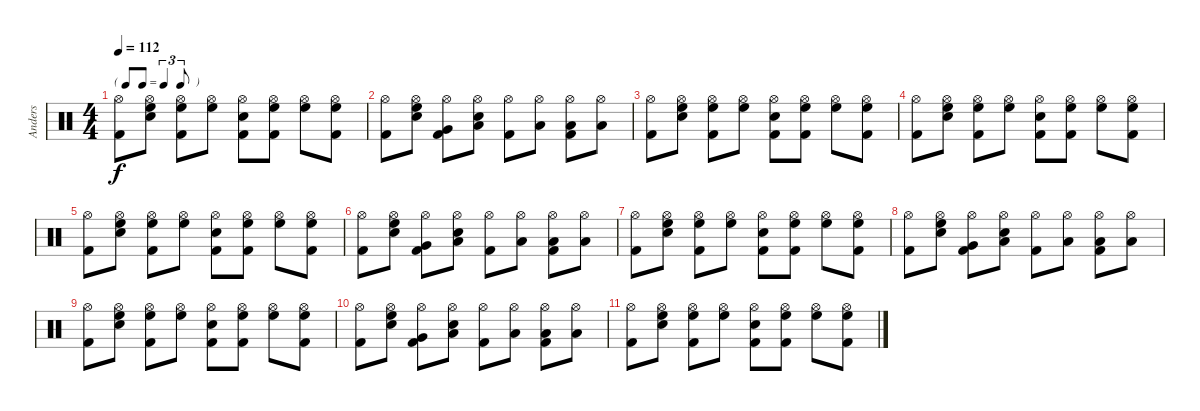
\track ("Anders" "Anders") {instrument percussion}
\staff {score}
\articulation defaults
\ts (4 4)
\tf triplet8th
\tempo 112
\clef neutral
\ks c
("Hi-Hat (open)" "Kick (hit) 2").8{dy f} ("Hi-Hat (open)" "Snare (hit) 2" "High Floor Tom (hit)").8 ("Hi-Hat (open)" "High Floor Tom (hit)" "Kick (hit) 2").8 ("Hi-Hat (open)" "High Floor Tom (hit)").8 ("Hi-Hat (open)" "Snare (hit) 2" "Kick (hit) 2").8 ("Hi-Hat (open)" "High Floor Tom (hit)" "Kick (hit) 2").8 ("Hi-Hat (open)" "High Floor Tom (hit)").8 ("Hi-Hat (open)" "High Floor Tom (hit)" "Kick (hit) 2").8 |
("Hi-Hat (open)" "Kick (hit) 2").8 ("Hi-Hat (open)" "High Floor Tom (hit)" "Snare (hit) 2").8 ("Hi-Hat (open)" "Very Low Tom (hit)" "Kick (hit) 2").8 ("Hi-Hat (open)" "Snare (hit) 2" "Low Tom (hit)").8 ("Hi-Hat (open)" "Kick (hit) 2").8 ("Hi-Hat (open)" "Low Floor Tom (hit)").8 ("Hi-Hat (open)" "Low Floor Tom (hit)" "Kick (hit) 2").8 ("Hi-Hat (open)" "Low Floor Tom (hit)").8 |
("Hi-Hat (open)" "Kick (hit) 2").8 ("Hi-Hat (open)" "Snare (hit) 2" "High Floor Tom (hit)").8 ("Hi-Hat (open)" "High Floor Tom (hit)" "Kick (hit) 2").8 ("Hi-Hat (open)" "High Floor Tom (hit)").8 ("Hi-Hat (open)" "Snare (hit) 2" "Kick (hit) 2").8 ("Hi-Hat (open)" "High Floor Tom (hit)" "Kick (hit) 2").8 ("Hi-Hat (open)" "High Floor Tom (hit)").8 ("Hi-Hat (open)" "High Floor Tom (hit)" "Kick (hit) 2").8 |
("Hi-Hat (open)" "Kick (hit) 2").8 ("Hi-Hat (open)" "Snare (hit) 2" "High Floor Tom (hit)").8 ("Hi-Hat (open)" "High Floor Tom (hit)" "Kick (hit) 2").8 ("Hi-Hat (open)" "High Floor Tom (hit)").8 ("Hi-Hat (open)" "Snare (hit) 2" "Kick (hit) 2").8 ("Hi-Hat (open)" "High Floor Tom (hit)" "Kick (hit) 2").8 ("Hi-Hat (open)" "High Floor Tom (hit)").8 ("Hi-Hat (open)" "High Floor Tom (hit)" "Kick (hit) 2").8 |
("Hi-Hat (open)" "Kick (hit) 2").8 ("Hi-Hat (open)" "Snare (hit) 2" "High Floor Tom (hit)").8 ("Hi-Hat (open)" "High Floor Tom (hit)" "Kick (hit) 2").8 ("Hi-Hat (open)" "High Floor Tom (hit)").8 ("Hi-Hat (open)" "Snare (hit) 2" "Kick (hit) 2").8 ("Hi-Hat (open)" "High Floor Tom (hit)" "Kick (hit) 2").8 ("Hi-Hat (open)" "High Floor Tom (hit)").8 ("Hi-Hat (open)" "High Floor Tom (hit)" "Kick (hit) 2").8 |
("Hi-Hat (open)" "Kick (hit) 2").8 ("Hi-Hat (open)" "High Floor Tom (hit)" "Snare (hit) 2").8 ("Hi-Hat (open)" "Very Low Tom (hit)" "Kick (hit) 2").8 ("Hi-Hat (open)" "Snare (hit) 2" "Low Tom (hit)").8 ("Hi-Hat (open)" "Kick (hit) 2").8 ("Hi-Hat (open)" "Low Floor Tom (hit)").8 ("Hi-Hat (open)" "Low Floor Tom (hit)" "Kick (hit) 2").8 ("Hi-Hat (open)" "Low Floor Tom (hit)").8 |
("Hi-Hat (open)" "Kick (hit) 2").8 ("Hi-Hat (open)" "Snare (hit) 2" "High Floor Tom (hit)").8 ("Hi-Hat (open)" "High Floor Tom (hit)" "Kick (hit) 2").8 ("Hi-Hat (open)" "High Floor Tom (hit)").8 ("Hi-Hat (open)" "Snare (hit) 2" "Kick (hit) 2").8 ("Hi-Hat (open)" "High Floor Tom (hit)" "Kick (hit) 2").8 ("Hi-Hat (open)" "High Floor Tom (hit)").8 ("Hi-Hat (open)" "High Floor Tom (hit)" "Kick (hit) 2").8 |
("Hi-Hat (open)" "Kick (hit) 2").8 ("Hi-Hat (open)" "High Floor Tom (hit)" "Snare (hit) 2").8 ("Hi-Hat (open)" "Very Low Tom (hit)" "Kick (hit) 2").8 ("Hi-Hat (open)" "Snare (hit) 2" "Low Tom (hit)").8 ("Hi-Hat (open)" "Kick (hit) 2").8 ("Hi-Hat (open)" "Low Floor Tom (hit)").8 ("Hi-Hat (open)" "Low Floor Tom (hit)" "Kick (hit) 2").8 ("Hi-Hat (open)" "Low Floor Tom (hit)").8 |
("Hi-Hat (open)" "Kick (hit) 2").8 ("Hi-Hat (open)" "Snare (hit) 2" "High Floor Tom (hit)").8 ("Hi-Hat (open)" "High Floor Tom (hit)" "Kick (hit) 2").8 ("Hi-Hat (open)" "High Floor Tom (hit)").8 ("Hi-Hat (open)" "Snare (hit) 2" "Kick (hit) 2").8 ("Hi-Hat (open)" "High Floor Tom (hit)" "Kick (hit) 2").8 ("Hi-Hat (open)" "High Floor Tom (hit)").8 ("Hi-Hat (open)" "High Floor Tom (hit)" "Kick (hit) 2").8 |
("Hi-Hat (open)" "Kick (hit) 2").8 ("Hi-Hat (open)" "High Floor Tom (hit)" "Snare (hit) 2").8 ("Hi-Hat (open)" "Very Low Tom (hit)" "Kick (hit) 2").8 ("Hi-Hat (open)" "Snare (hit) 2" "Low Tom (hit)").8 ("Hi-Hat (open)" "Kick (hit) 2").8 ("Hi-Hat (open)" "Low Floor Tom (hit)").8 ("Hi-Hat (open)" "Low Floor Tom (hit)" "Kick (hit) 2").8 ("Hi-Hat (open)" "Low Floor Tom (hit)").8 |
("Hi-Hat (open)" "Kick (hit) 2").8 ("Hi-Hat (open)" "Snare (hit) 2" "High Floor Tom (hit)").8 ("Hi-Hat (open)" "High Floor Tom (hit)" "Kick (hit) 2").8 ("Hi-Hat (open)" "High Floor Tom (hit)").8 ("Hi-Hat (open)" "Snare (hit) 2" "Kick (hit) 2").8 ("Hi-Hat (open)" "High Floor Tom (hit)" "Kick (hit) 2").8 ("Hi-Hat (open)" "High Floor Tom (hit)").8 ("Hi-Hat (open)" "High Floor Tom (hit)" "Kick (hit) 2").8
